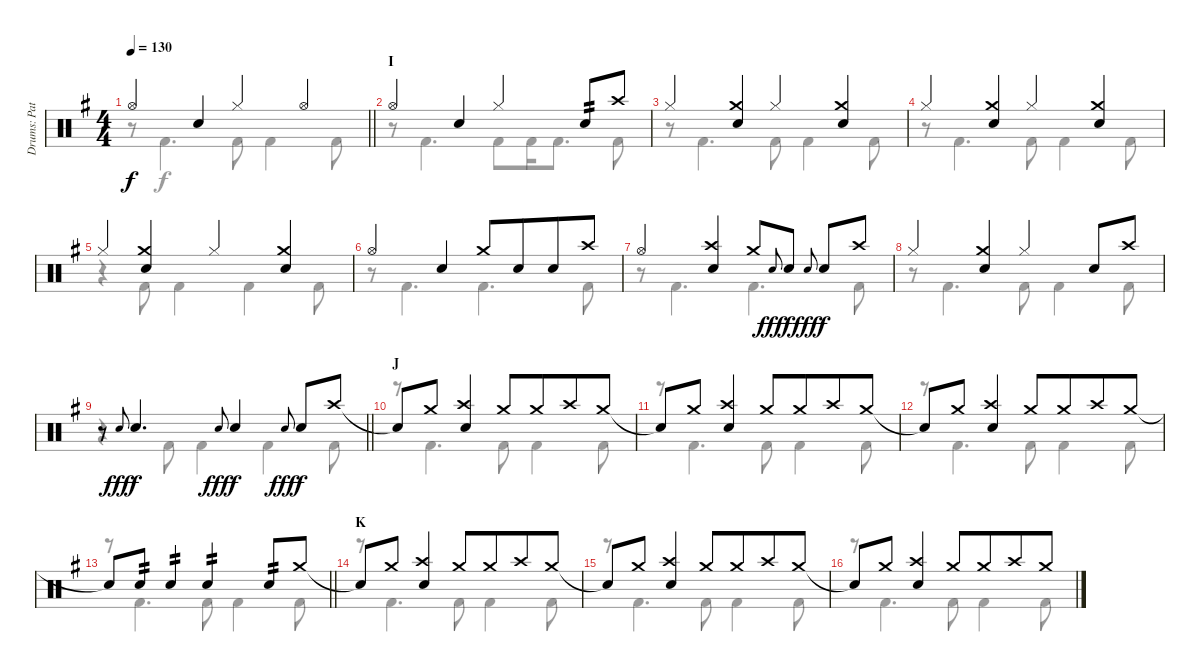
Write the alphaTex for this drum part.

\track ("Drums: Pat" "Drums: Pat") {instrument percussion}
\staff {score}
\articulation defaults
\voice
\ts (4 4)
\tempo 130
\clef neutral
\barLineRight lightlight
\ks g "Hi-Hat (open)".4{dy f} "Snare (hit) 2".4 "Hi-Hat (closed)".4 "Hi-Hat (open)".4
|
\section ("" "I")
"Hi-Hat (open)".4 "Snare (hit) 2".4 "Hi-Hat (closed)".4 "Snare (hit) 2".8{tp 2} "Crash high (hit)".8 |
"Hi-Hat (closed)".4 ("Crash medium (hit)" "Snare (hit) 2").4 "Hi-Hat (closed)".4 ("Crash medium (hit)" "Snare (hit) 2").4 |
"Hi-Hat (closed)".4 ("Crash medium (hit)" "Snare (hit) 2").4 "Hi-Hat (closed)".4 ("Crash medium (hit)" "Snare (hit) 2").4 |
"Hi-Hat (closed)".4 ("Crash medium (hit)" "Snare (hit) 2").4 "Hi-Hat (closed)".4 ("Crash medium (hit)" "Snare (hit) 2").4 |
"Hi-Hat (open)".4 "Snare (hit) 2".4 "Crash medium (hit)".8 "Snare (hit) 2".8{beam merge} "Snare (hit) 2".8 "Crash high (hit)".8 |
"Hi-Hat (open)".4 ("Crash high (hit)" "Snare (hit) 2").4 "Crash medium (hit)".8 "Electric Snare (hit)".8{gr onbeat dy fff} "Snare (hit) 2".8{dy f} "Electric Snare (hit)".8{gr onbeat dy fff beam merge} "Snare (hit) 2".8{dy f beam merge} "Crash high (hit)".8 |
"Hi-Hat (closed)".4 ("Crash medium (hit)" "Snare (hit) 2").4 "Hi-Hat (closed)".4 "Snare (hit) 2".8 "Crash high (hit)".8 |
\barLineRight lightlight
r.8 "Electric Snare (hit)".8{gr onbeat dy fff} "Snare (hit) 2".4{d dy f} "Electric Snare (hit)".8{gr onbeat dy fff} "Snare (hit) 2".4{dy f} "Electric Snare (hit)".8{gr onbeat dy fff} "Snare (hit) 2".8{dy f} "Crash high (hit)".8 |
\section ("" "J")
"Snare (hit)"{t}.8 "Crash medium (hit)".8 ("Crash high (hit)" "Snare (hit) 2").4 "Crash medium (hit)".8 "Crash medium (hit)".8{beam merge} "Crash high (hit)".8 "Crash medium (hit)".8 |
"Snare (hit)"{t}.8 "Crash medium (hit)".8 ("Crash high (hit)" "Snare (hit) 2").4 "Crash medium (hit)".8 "Crash medium (hit)".8{beam merge} "Crash high (hit)".8 "Crash medium (hit)".8 |
"Snare (hit)"{t}.8 "Crash medium (hit)".8 ("Crash high (hit)" "Snare (hit) 2").4 "Crash medium (hit)".8 "Crash medium (hit)".8{beam merge} "Crash high (hit)".8 "Crash medium (hit)".8 |
\barLineRight lightlight "Snare (hit)"{t}.8 "Snare (hit) 2".8{tp 2} "Snare (hit) 2".4{tp 2 beam merge} "Snare (hit) 2".4{tp 2 beam merge} "Snare (hit) 2".8{tp 2} "Crash medium (hit)".8
|
\section ("" "K")
"Snare (hit)"{t}.8 "Crash medium (hit)".8 ("Crash high (hit)" "Snare (hit) 2").4 "Crash medium (hit)".8 "Crash medium (hit)".8{beam merge} "Crash high (hit)".8 "Crash medium (hit)".8 |
"Snare (hit)"{t}.8 "Crash medium (hit)".8 ("Crash high (hit)" "Snare (hit) 2").4 "Crash medium (hit)".8 "Crash medium (hit)".8{beam merge} "Crash high (hit)".8 "Crash medium (hit)".8 |
"Snare (hit)"{t}.8 "Crash medium (hit)".8 ("Crash high (hit)" "Snare (hit) 2").4 "Crash medium (hit)".8 "Crash medium (hit)".8{beam merge} "Crash high (hit)".8 "Crash medium (hit)".8
\voice
\clef neutral
\ottava regular
\simile none
\barLineRight lightlight
\ks g
r.8{dy f} "Kick (hit) 2".4{d} "Kick (hit) 2".8 "Kick (hit) 2".4 "Kick (hit) 2".8 |
r.8 "Kick (hit) 2".4{d} "Kick (hit) 2".8 "Kick (hit) 2".16 "Kick (hit) 2".8{d} "Kick (hit) 2".8 |
r.8 "Kick (hit) 2".4{d} "Kick (hit) 2".8 "Kick (hit) 2".4 "Kick (hit) 2".8 |
r.8 "Kick (hit) 2".4{d} "Kick (hit) 2".8 "Kick (hit) 2".4 "Kick (hit) 2".8 |
r.4 "Kick (hit) 2".8 "Kick (hit) 2".4 "Kick (hit) 2".4 "Kick (hit) 2".8 |
r.8 "Kick (hit) 2".4{d} "Kick (hit) 2".4{d} "Kick (hit) 2".8 |
r.8 "Kick (hit) 2".4{d} "Kick (hit) 2".4{d} "Kick (hit) 2".8 |
r.8 "Kick (hit) 2".4{d} "Kick (hit) 2".8 "Kick (hit) 2".4 "Kick (hit) 2".8 |
\barLineRight lightlight
r.4 "Kick (hit) 2".8 "Kick (hit) 2".4 "Kick (hit) 2".4 "Kick (hit) 2".8 |
r.8 "Kick (hit) 2".4{d} "Kick (hit) 2".8 "Kick (hit) 2".4 "Kick (hit) 2".8 |
r.8 "Kick (hit) 2".4{d} "Kick (hit) 2".8 "Kick (hit) 2".4 "Kick (hit) 2".8 |
r.8 "Kick (hit) 2".4{d} "Kick (hit) 2".8 "Kick (hit) 2".4 "Kick (hit) 2".8 |
\barLineRight lightlight
r.8 "Kick (hit) 2".4{d} "Kick (hit) 2".8 "Kick (hit) 2".4 "Kick (hit) 2".8 |
r.8 "Kick (hit) 2".4{d} "Kick (hit) 2".8 "Kick (hit) 2".4 "Kick (hit) 2".8 |
r.8 "Kick (hit) 2".4{d} "Kick (hit) 2".8 "Kick (hit) 2".4 "Kick (hit) 2".8 |
r.8 "Kick (hit) 2".4{d} "Kick (hit) 2".8 "Kick (hit) 2".4 "Kick (hit) 2".8
